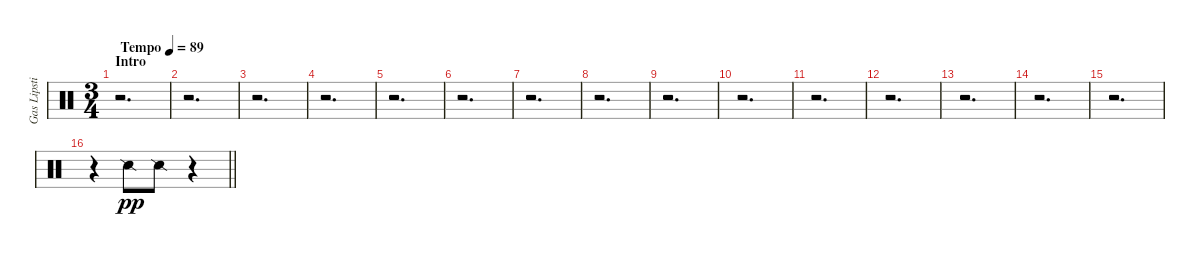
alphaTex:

\track ("Gas Lipstick (Drums)" "Gas Lipsti") {instrument percussion}
\staff {score}
\articulation defaults
\ts (3 4)
\section ("" "Intro")
\tempo (89 "Tempo")
\clef neutral
\ks c
r.2{d dy pp} |
r.2{d} |
r.2{d} |
r.2{d} |
r.2{d} |
r.2{d} |
r.2{d} |
r.2{d} |
r.2{d} |
r.2{d} |
r.2{d} |
r.2{d} |
r.2{d} |
r.2{d} |
r.2{d} |
\barLineRight lightlight
r.4 "Snare (side stick) 2".8 "Snare (side stick) 2".8 r.4
